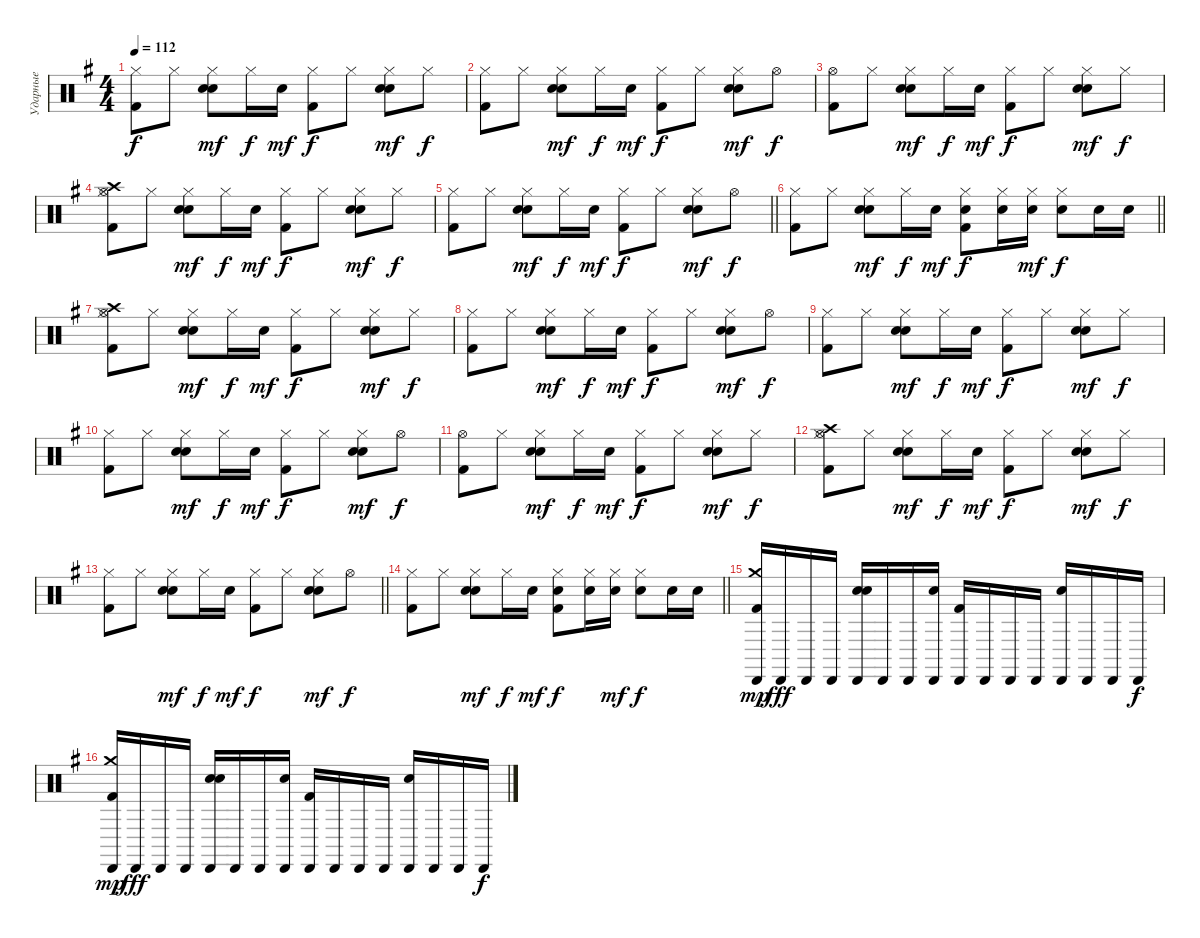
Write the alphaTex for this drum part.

\track ("Ударные" "Ударные") {instrument percussion}
\staff {score}
\articulation defaults
\ts (4 4)
\tempo 112
\clef neutral
\ks eminor
("Hi-Hat (closed)" "Kick (hit) 2").8{dy f} "Hi-Hat (closed)".8 ("Hi-Hat (closed)" "Electric Snare (hit)" "Snare (hit) 2").8{dy mf} "Hi-Hat (closed)".16{dy f} "Snare (hit) 2".16{dy mf} ("Hi-Hat (closed)" "Kick (hit) 2").8{dy f} "Hi-Hat (closed)".8 ("Hi-Hat (closed)" "Electric Snare (hit)" "Snare (hit) 2").8{dy mf} "Hi-Hat (closed)".8{dy f} |
("Hi-Hat (closed)" "Kick (hit) 2").8 "Hi-Hat (closed)".8 ("Hi-Hat (closed)" "Electric Snare (hit)" "Snare (hit) 2").8{dy mf} "Hi-Hat (closed)".16{dy f} "Snare (hit) 2".16{dy mf} ("Hi-Hat (closed)" "Kick (hit) 2").8{dy f} "Hi-Hat (closed)".8 ("Hi-Hat (closed)" "Electric Snare (hit)" "Snare (hit) 2").8{dy mf} "Hi-Hat (open)".8{dy f} |
("Hi-Hat (open)" "Kick (hit) 2").8 "Hi-Hat (closed)".8 ("Hi-Hat (closed)" "Electric Snare (hit)" "Snare (hit) 2").8{dy mf} "Hi-Hat (closed)".16{dy f} "Snare (hit) 2".16{dy mf} ("Hi-Hat (closed)" "Kick (hit) 2").8{dy f} "Hi-Hat (closed)".8 ("Hi-Hat (closed)" "Electric Snare (hit)" "Snare (hit) 2").8{dy mf} "Hi-Hat (closed)".8{dy f} |
("Hi-Hat (closed)" "Crash high (hit)" "Kick (hit) 2" "Hi-Hat (open)").8 "Hi-Hat (closed)".8 ("Hi-Hat (closed)" "Electric Snare (hit)" "Snare (hit) 2").8{dy mf} "Hi-Hat (closed)".16{dy f} "Snare (hit) 2".16{dy mf} ("Hi-Hat (closed)" "Kick (hit) 2").8{dy f} "Hi-Hat (closed)".8 ("Hi-Hat (closed)" "Electric Snare (hit)" "Snare (hit) 2").8{dy mf} "Hi-Hat (closed)".8{dy f} |
\barLineRight lightlight
("Hi-Hat (closed)" "Kick (hit) 2").8 "Hi-Hat (closed)".8 ("Hi-Hat (closed)" "Electric Snare (hit)" "Snare (hit) 2").8{dy mf} "Hi-Hat (closed)".16{dy f} "Snare (hit) 2".16{dy mf} ("Hi-Hat (closed)" "Kick (hit) 2").8{dy f} "Hi-Hat (closed)".8 ("Hi-Hat (closed)" "Electric Snare (hit)" "Snare (hit) 2").8{dy mf} "Hi-Hat (open)".8{dy f} |
\barLineRight lightlight
("Hi-Hat (closed)" "Kick (hit) 2").8 "Hi-Hat (closed)".8 ("Hi-Hat (closed)" "Electric Snare (hit)" "Snare (hit) 2").8{dy mf} "Hi-Hat (closed)".16{dy f} "Snare (hit) 2".16{dy mf} ("Hi-Hat (closed)" "Kick (hit) 2" "Snare (hit) 2").8{dy f} ("Hi-Hat (closed)" "Snare (hit) 2").16 ("Hi-Hat (closed)" "Snare (hit) 2").16{dy mf} ("Hi-Hat (closed)" "Snare (hit) 2").8{dy f} "Snare (hit) 2".16 "Snare (hit) 2".16 |
("Hi-Hat (closed)" "Crash high (hit)" "Kick (hit) 2" "Hi-Hat (open)").8 "Hi-Hat (closed)".8 ("Hi-Hat (closed)" "Electric Snare (hit)" "Snare (hit) 2").8{dy mf} "Hi-Hat (closed)".16{dy f} "Snare (hit) 2".16{dy mf} ("Hi-Hat (closed)" "Kick (hit) 2").8{dy f} "Hi-Hat (closed)".8 ("Hi-Hat (closed)" "Electric Snare (hit)" "Snare (hit) 2").8{dy mf} "Hi-Hat (closed)".8{dy f} |
("Hi-Hat (closed)" "Kick (hit) 2").8 "Hi-Hat (closed)".8 ("Hi-Hat (closed)" "Electric Snare (hit)" "Snare (hit) 2").8{dy mf} "Hi-Hat (closed)".16{dy f} "Snare (hit) 2".16{dy mf} ("Hi-Hat (closed)" "Kick (hit) 2").8{dy f} "Hi-Hat (closed)".8 ("Hi-Hat (closed)" "Electric Snare (hit)" "Snare (hit) 2").8{dy mf} "Hi-Hat (open)".8{dy f} |
("Hi-Hat (closed)" "Kick (hit) 2").8 "Hi-Hat (closed)".8 ("Hi-Hat (closed)" "Electric Snare (hit)" "Snare (hit) 2").8{dy mf} "Hi-Hat (closed)".16{dy f} "Snare (hit) 2".16{dy mf} ("Hi-Hat (closed)" "Kick (hit) 2").8{dy f} "Hi-Hat (closed)".8 ("Hi-Hat (closed)" "Electric Snare (hit)" "Snare (hit) 2").8{dy mf} "Hi-Hat (closed)".8{dy f} |
("Hi-Hat (closed)" "Kick (hit) 2").8 "Hi-Hat (closed)".8 ("Hi-Hat (closed)" "Electric Snare (hit)" "Snare (hit) 2").8{dy mf} "Hi-Hat (closed)".16{dy f} "Snare (hit) 2".16{dy mf} ("Hi-Hat (closed)" "Kick (hit) 2").8{dy f} "Hi-Hat (closed)".8 ("Hi-Hat (closed)" "Electric Snare (hit)" "Snare (hit) 2").8{dy mf} "Hi-Hat (open)".8{dy f} |
("Hi-Hat (open)" "Kick (hit) 2").8 "Hi-Hat (closed)".8 ("Hi-Hat (closed)" "Electric Snare (hit)" "Snare (hit) 2").8{dy mf} "Hi-Hat (closed)".16{dy f} "Snare (hit) 2".16{dy mf} ("Hi-Hat (closed)" "Kick (hit) 2").8{dy f} "Hi-Hat (closed)".8 ("Hi-Hat (closed)" "Electric Snare (hit)" "Snare (hit) 2").8{dy mf} "Hi-Hat (closed)".8{dy f} |
("Hi-Hat (closed)" "Crash high (hit)" "Kick (hit) 2" "Hi-Hat (open)").8 "Hi-Hat (closed)".8 ("Hi-Hat (closed)" "Electric Snare (hit)" "Snare (hit) 2").8{dy mf} "Hi-Hat (closed)".16{dy f} "Snare (hit) 2".16{dy mf} ("Hi-Hat (closed)" "Kick (hit) 2").8{dy f} "Hi-Hat (closed)".8 ("Hi-Hat (closed)" "Electric Snare (hit)" "Snare (hit) 2").8{dy mf} "Hi-Hat (closed)".8{dy f} |
\barLineRight lightlight
("Hi-Hat (closed)" "Kick (hit) 2").8 "Hi-Hat (closed)".8 ("Hi-Hat (closed)" "Electric Snare (hit)" "Snare (hit) 2").8{dy mf} "Hi-Hat (closed)".16{dy f} "Snare (hit) 2".16{dy mf} ("Hi-Hat (closed)" "Kick (hit) 2").8{dy f} "Hi-Hat (closed)".8 ("Hi-Hat (closed)" "Electric Snare (hit)" "Snare (hit) 2").8{dy mf} "Hi-Hat (open)".8{dy f} |
\barLineRight lightlight
("Hi-Hat (closed)" "Kick (hit) 2").8 "Hi-Hat (closed)".8 ("Hi-Hat (closed)" "Electric Snare (hit)" "Snare (hit) 2").8{dy mf} "Hi-Hat (closed)".16{dy f} "Snare (hit) 2".16{dy mf} ("Hi-Hat (closed)" "Kick (hit) 2" "Snare (hit) 2").8{dy f} ("Hi-Hat (closed)" "Snare (hit) 2").16 ("Hi-Hat (closed)" "Snare (hit) 2").16{dy mf} ("Hi-Hat (closed)" "Snare (hit) 2").8{dy f} "Snare (hit) 2".16 "Snare (hit) 2".16 |
("Cabasa (hit)" "Crash medium (hit)" "Kick (hit) 2").16{dy mp} "Cabasa (hit)".16{dy fff} "Cabasa (hit)".16 "Cabasa (hit)".16 ("Cabasa (hit)" "Electric Snare (hit)" "Snare (hit) 2").16 "Cabasa (hit)".16 "Cabasa (hit)".16 ("Cabasa (hit)" "Snare (hit) 2").16 ("Cabasa (hit)" "Kick (hit) 2").16 "Cabasa (hit)".16 "Cabasa (hit)".16 "Cabasa (hit)".16 ("Cabasa (hit)" "Snare (hit) 2").16 "Cabasa (hit)".16 "Cabasa (hit)".16 "Cabasa (hit)".16{dy f} |
("Cabasa (hit)" "Crash medium (hit)" "Kick (hit) 2").16{dy mp} "Cabasa (hit)".16{dy fff} "Cabasa (hit)".16 "Cabasa (hit)".16 ("Cabasa (hit)" "Electric Snare (hit)" "Snare (hit) 2").16 "Cabasa (hit)".16 "Cabasa (hit)".16 ("Cabasa (hit)" "Snare (hit) 2").16 ("Cabasa (hit)" "Kick (hit) 2").16 "Cabasa (hit)".16 "Cabasa (hit)".16 "Cabasa (hit)".16 ("Cabasa (hit)" "Snare (hit) 2").16 "Cabasa (hit)".16 "Cabasa (hit)".16 "Cabasa (hit)".16{dy f}
